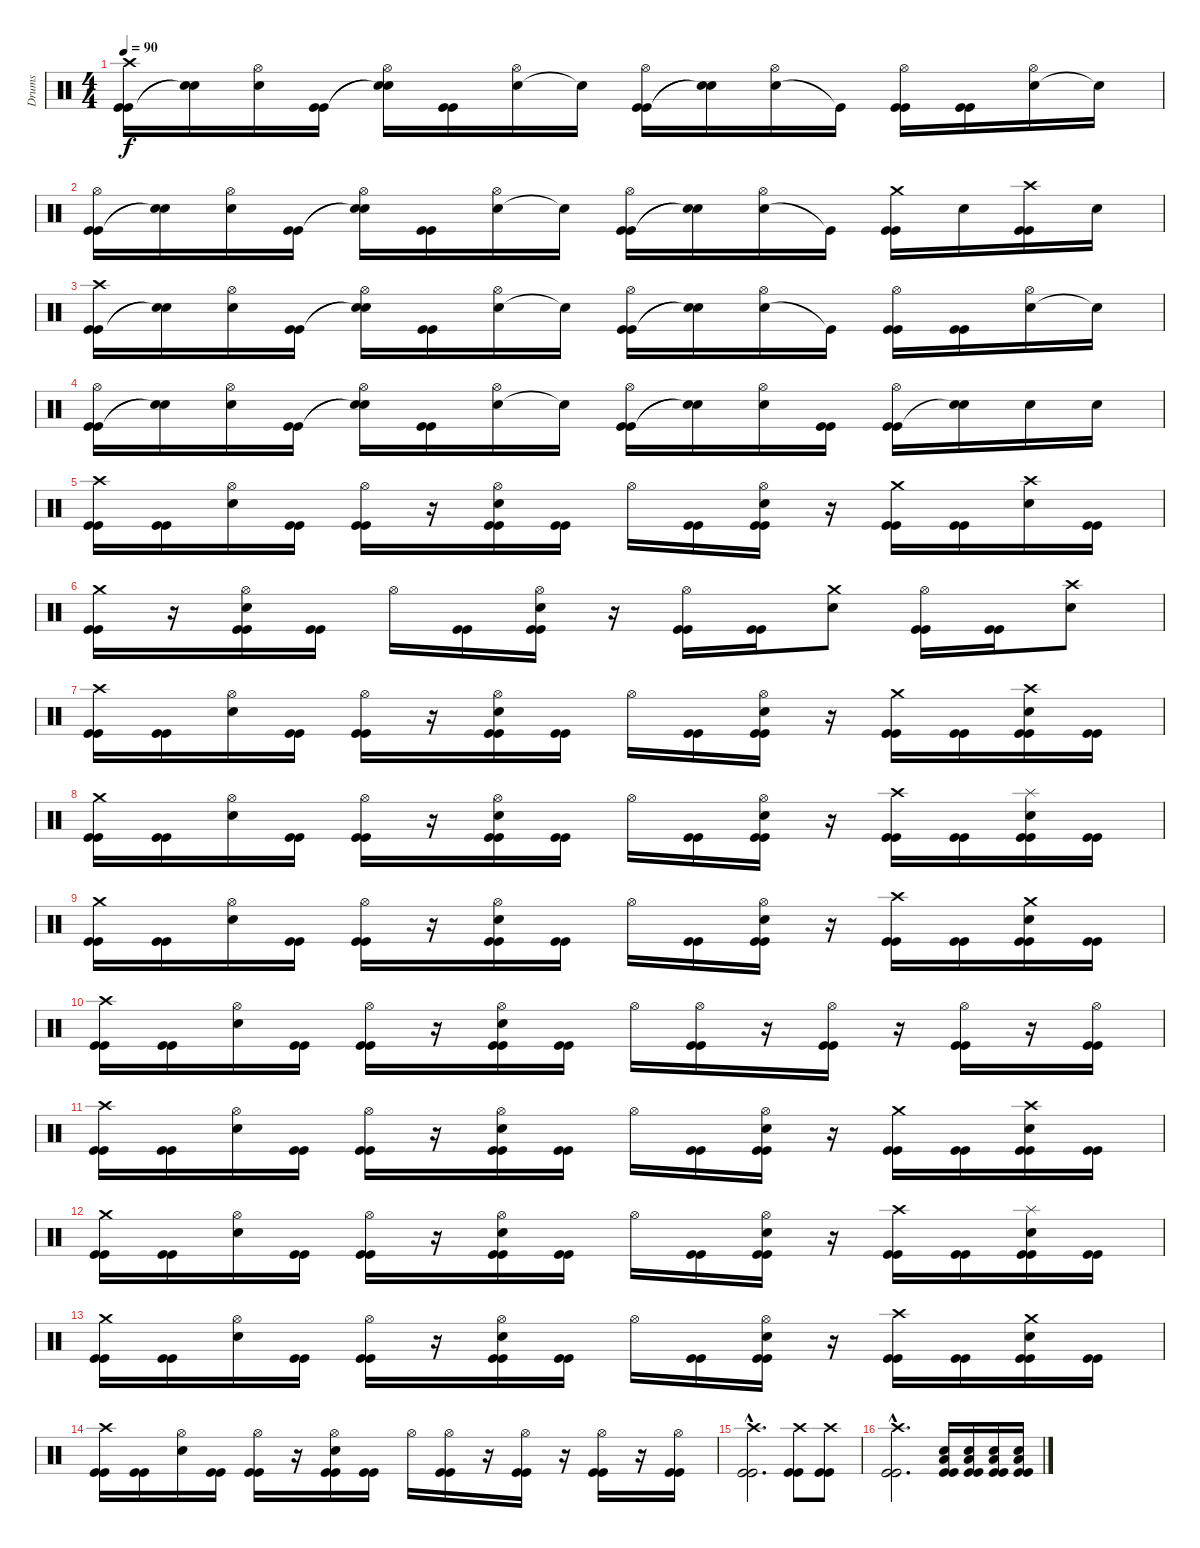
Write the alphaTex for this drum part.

\track ("Drums" "Drums") {instrument percussion}
\staff {score}
\articulation defaults
\ts (4 4)
\tempo 90
\clef neutral
\ks c
("Kick (hit)" "Kick (hit)" "Crash high (hit)").16{dy f} ("Snare (hit) 2"{t} "Snare (hit)"{t}).16 ("Snare (hit) 2" "Hi-Hat (open)").16 ("Kick (hit)" "Kick (hit)").16 ("Snare (hit)"{t} "Snare (hit) 2"{t} "Hi-Hat (open)").16 ("Kick (hit)" "Kick (hit)").16 ("Snare (hit) 2" "Hi-Hat (open)").16 "Snare (hit)"{t}.16 ("Kick (hit)" "Kick (hit)" "Hi-Hat (open)").16 ("Snare (hit) 2"{t} "Snare (hit)"{t}).16 ("Snare (hit) 2" "Hi-Hat (open)").16 "Kick (hit)"{t}.16 ("Kick (hit)" "Kick (hit)" "Hi-Hat (open)").16 ("Kick (hit)" "Kick (hit)").16 ("Snare (hit) 2" "Hi-Hat (open)").16 "Snare (hit)"{t}.16 |
("Kick (hit)" "Kick (hit)" "Hi-Hat (open)").16 ("Snare (hit) 2"{t} "Snare (hit)"{t}).16 ("Snare (hit) 2" "Hi-Hat (open)").16 ("Kick (hit)" "Kick (hit)").16 ("Snare (hit)"{t} "Snare (hit) 2"{t} "Hi-Hat (open)").16 ("Kick (hit)" "Kick (hit)").16 ("Snare (hit) 2" "Hi-Hat (open)").16 "Snare (hit)"{t}.16 ("Kick (hit)" "Kick (hit)" "Hi-Hat (open)").16 ("Snare (hit) 2"{t} "Snare (hit)"{t}).16 ("Snare (hit) 2" "Hi-Hat (open)").16 "Kick (hit)"{t}.16 ("Kick (hit)" "Kick (hit)" "Crash medium (hit)").16 "Snare (hit) 2".16 ("Kick (hit)" "Kick (hit)" "Crash high (hit)").16 "Snare (hit) 2".16 |
("Kick (hit)" "Kick (hit)" "Crash high (hit)").16 ("Snare (hit) 2"{t} "Snare (hit)"{t}).16 ("Snare (hit) 2" "Hi-Hat (open)").16 ("Kick (hit)" "Kick (hit)").16 ("Snare (hit)"{t} "Snare (hit) 2"{t} "Hi-Hat (open)").16 ("Kick (hit)" "Kick (hit)").16 ("Snare (hit) 2" "Hi-Hat (open)").16 "Snare (hit)"{t}.16 ("Kick (hit)" "Kick (hit)" "Hi-Hat (open)").16 ("Snare (hit) 2"{t} "Snare (hit)"{t}).16 ("Snare (hit) 2" "Hi-Hat (open)").16 "Kick (hit)"{t}.16 ("Kick (hit)" "Kick (hit)" "Hi-Hat (open)").16 ("Kick (hit)" "Kick (hit)").16 ("Snare (hit) 2" "Hi-Hat (open)").16 "Snare (hit)"{t}.16 |
("Kick (hit)" "Kick (hit)" "Hi-Hat (open)").16 ("Snare (hit) 2"{t} "Snare (hit)"{t}).16 ("Snare (hit) 2" "Hi-Hat (open)").16 ("Kick (hit)" "Kick (hit)").16 ("Snare (hit)"{t} "Snare (hit) 2"{t} "Hi-Hat (open)").16 ("Kick (hit)" "Kick (hit)").16 ("Snare (hit) 2" "Hi-Hat (open)").16 "Snare (hit)"{t}.16 ("Kick (hit)" "Kick (hit)" "Hi-Hat (open)").16 ("Snare (hit)"{t} "Snare (hit)"{t}).16 ("Snare (hit) 2" "Hi-Hat (open)").16 ("Kick (hit)" "Kick (hit)").16 ("Kick (hit)" "Kick (hit)" "Hi-Hat (open)").16 ("Snare (hit) 2"{t} "Snare (hit) 2").16 "Snare (hit) 2".16 "Snare (hit) 2".16 |
("Kick (hit)" "Kick (hit)" "Crash high (hit)").16 ("Kick (hit)" "Kick (hit)").16 ("Snare (hit) 2" "Hi-Hat (open)").16 ("Kick (hit)" "Kick (hit)").16 ("Kick (hit)" "Kick (hit)" "Hi-Hat (open)").16 r.16 ("Kick (hit)" "Kick (hit)" "Snare (hit) 2" "Hi-Hat (open)").16 ("Kick (hit)" "Kick (hit)").16 "Hi-Hat (open)".16 ("Kick (hit)" "Kick (hit)").16 ("Kick (hit)" "Kick (hit)" "Snare (hit) 2" "Hi-Hat (open)").16 r.16 ("Kick (hit)" "Kick (hit)" "Crash medium (hit)").16 ("Kick (hit)" "Kick (hit)").16 ("Snare (hit) 2" "Crash high (hit)").16 ("Kick (hit)" "Kick (hit)").16 |
("Kick (hit)" "Kick (hit)" "Crash medium (hit)").16 r.16 ("Kick (hit)" "Kick (hit)" "Snare (hit) 2" "Hi-Hat (open)").16 ("Kick (hit)" "Kick (hit)").16 "Hi-Hat (open)".16 ("Kick (hit)" "Kick (hit)").16 ("Kick (hit)" "Kick (hit)" "Snare (hit) 2" "Hi-Hat (open)").16 r.16 ("Kick (hit)" "Kick (hit)" "Hi-Hat (open)").16 ("Kick (hit)" "Kick (hit)").16 ("Crash medium (hit)" "Snare (hit) 2").8 ("Kick (hit)" "Kick (hit)" "Hi-Hat (open)").16 ("Kick (hit)" "Kick (hit)").16 ("Crash high (hit)" "Snare (hit) 2").8 |
("Kick (hit)" "Kick (hit)" "Crash high (hit)").16 ("Kick (hit)" "Kick (hit)").16 ("Snare (hit) 2" "Hi-Hat (open)").16 ("Kick (hit)" "Kick (hit)").16 ("Kick (hit)" "Kick (hit)" "Hi-Hat (open)").16 r.16 ("Kick (hit)" "Kick (hit)" "Snare (hit) 2" "Hi-Hat (open)").16 ("Kick (hit)" "Kick (hit)").16 "Hi-Hat (open)".16 ("Kick (hit)" "Kick (hit)").16 ("Kick (hit)" "Kick (hit)" "Snare (hit) 2" "Hi-Hat (open)").16 r.16 ("Kick (hit)" "Kick (hit)" "Crash medium (hit)").16 ("Kick (hit)" "Kick (hit)").16 ("Kick (hit)" "Kick (hit)" "Snare (hit) 2" "Crash high (hit)").16 ("Kick (hit)" "Kick (hit)").16 |
("Kick (hit)" "Kick (hit)" "Crash medium (hit)").16 ("Kick (hit)" "Kick (hit)").16 ("Snare (hit) 2" "Hi-Hat (open)").16 ("Kick (hit)" "Kick (hit)").16 ("Kick (hit)" "Kick (hit)" "Hi-Hat (open)").16 r.16 ("Kick (hit)" "Kick (hit)" "Snare (hit) 2" "Hi-Hat (open)").16 ("Kick (hit)" "Kick (hit)").16 "Hi-Hat (open)".16 ("Kick (hit)" "Kick (hit)").16 ("Kick (hit)" "Kick (hit)" "Snare (hit) 2" "Hi-Hat (open)").16 r.16 ("Kick (hit)" "Kick (hit)" "Crash high (hit)").16 ("Kick (hit)" "Kick (hit)").16 ("Kick (hit)" "Kick (hit)" "Snare (hit) 2" "Splash (hit)").16 ("Kick (hit)" "Kick (hit)").16 |
("Kick (hit)" "Kick (hit)" "Crash medium (hit)").16 ("Kick (hit)" "Kick (hit)").16 ("Snare (hit) 2" "Hi-Hat (open)").16 ("Kick (hit)" "Kick (hit)").16 ("Kick (hit)" "Kick (hit)" "Hi-Hat (open)").16 r.16 ("Kick (hit)" "Kick (hit)" "Snare (hit) 2" "Hi-Hat (open)").16 ("Kick (hit)" "Kick (hit)").16 "Hi-Hat (open)".16 ("Kick (hit)" "Kick (hit)").16 ("Kick (hit)" "Kick (hit)" "Snare (hit) 2" "Hi-Hat (open)").16 r.16 ("Kick (hit)" "Kick (hit)" "Crash high (hit)").16 ("Kick (hit)" "Kick (hit)").16 ("Kick (hit)" "Kick (hit)" "Snare (hit) 2" "Crash medium (hit)").16 ("Kick (hit)" "Kick (hit)").16 |
("Kick (hit)" "Kick (hit)" "Crash high (hit)").16 ("Kick (hit)" "Kick (hit)").16 ("Snare (hit) 2" "Hi-Hat (open)").16 ("Kick (hit)" "Kick (hit)").16 ("Kick (hit)" "Kick (hit)" "Hi-Hat (open)").16 r.16 ("Kick (hit)" "Kick (hit)" "Snare (hit) 2" "Hi-Hat (open)").16 ("Kick (hit)" "Kick (hit)").16 "Hi-Hat (open)".16 ("Kick (hit)" "Hi-Hat (open)" "Kick (hit)").16 r.16 ("Kick (hit)" "Hi-Hat (open)" "Kick (hit)").16 r.16 ("Kick (hit)" "Hi-Hat (open)" "Kick (hit)").16 r.16 ("Kick (hit)" "Hi-Hat (open)" "Kick (hit)").16 |
("Kick (hit)" "Kick (hit)" "Crash high (hit)").16 ("Kick (hit)" "Kick (hit)").16 ("Snare (hit) 2" "Hi-Hat (open)").16 ("Kick (hit)" "Kick (hit)").16 ("Kick (hit)" "Kick (hit)" "Hi-Hat (open)").16 r.16 ("Kick (hit)" "Kick (hit)" "Snare (hit) 2" "Hi-Hat (open)").16 ("Kick (hit)" "Kick (hit)").16 "Hi-Hat (open)".16 ("Kick (hit)" "Kick (hit)").16 ("Kick (hit)" "Kick (hit)" "Snare (hit) 2" "Hi-Hat (open)").16 r.16 ("Kick (hit)" "Kick (hit)" "Crash medium (hit)").16 ("Kick (hit)" "Kick (hit)").16 ("Kick (hit)" "Kick (hit)" "Snare (hit) 2" "Crash high (hit)").16 ("Kick (hit)" "Kick (hit)").16 |
("Kick (hit)" "Kick (hit)" "Crash medium (hit)").16 ("Kick (hit)" "Kick (hit)").16 ("Snare (hit) 2" "Hi-Hat (open)").16 ("Kick (hit)" "Kick (hit)").16 ("Kick (hit)" "Kick (hit)" "Hi-Hat (open)").16 r.16 ("Kick (hit)" "Kick (hit)" "Snare (hit) 2" "Hi-Hat (open)").16 ("Kick (hit)" "Kick (hit)").16 "Hi-Hat (open)".16 ("Kick (hit)" "Kick (hit)").16 ("Kick (hit)" "Kick (hit)" "Snare (hit) 2" "Hi-Hat (open)").16 r.16 ("Kick (hit)" "Kick (hit)" "Crash high (hit)").16 ("Kick (hit)" "Kick (hit)").16 ("Kick (hit)" "Kick (hit)" "Snare (hit) 2" "Splash (hit)").16 ("Kick (hit)" "Kick (hit)").16 |
("Kick (hit)" "Kick (hit)" "Crash medium (hit)").16 ("Kick (hit)" "Kick (hit)").16 ("Snare (hit) 2" "Hi-Hat (open)").16 ("Kick (hit)" "Kick (hit)").16 ("Kick (hit)" "Kick (hit)" "Hi-Hat (open)").16 r.16 ("Kick (hit)" "Kick (hit)" "Snare (hit) 2" "Hi-Hat (open)").16 ("Kick (hit)" "Kick (hit)").16 "Hi-Hat (open)".16 ("Kick (hit)" "Kick (hit)").16 ("Kick (hit)" "Kick (hit)" "Snare (hit) 2" "Hi-Hat (open)").16 r.16 ("Kick (hit)" "Kick (hit)" "Crash high (hit)").16 ("Kick (hit)" "Kick (hit)").16 ("Kick (hit)" "Kick (hit)" "Snare (hit) 2" "Crash medium (hit)").16 ("Kick (hit)" "Kick (hit)").16 |
("Kick (hit)" "Kick (hit)" "Crash high (hit)").16 ("Kick (hit)" "Kick (hit)").16 ("Snare (hit) 2" "Hi-Hat (open)").16 ("Kick (hit)" "Kick (hit)").16 ("Kick (hit)" "Kick (hit)" "Hi-Hat (open)").16 r.16 ("Kick (hit)" "Kick (hit)" "Snare (hit) 2" "Hi-Hat (open)").16 ("Kick (hit)" "Kick (hit)").16 "Hi-Hat (open)".16 ("Kick (hit)" "Hi-Hat (open)" "Kick (hit)").16 r.16 ("Kick (hit)" "Hi-Hat (open)" "Kick (hit)").16 r.16 ("Kick (hit)" "Hi-Hat (open)" "Kick (hit)").16 r.16 ("Kick (hit)" "Hi-Hat (open)" "Kick (hit)").16 |
("Kick (hit)"{hac} "Kick (hit)"{hac} "Crash high (hit)"{hac}).2{d} ("Kick (hit)" "Crash high (hit)" "Kick (hit)").8 ("Kick (hit)" "Crash high (hit)" "Kick (hit)").8 |
("Kick (hit)"{hac} "Kick (hit)"{hac} "Crash high (hit)"{hac}).2{d} ("Kick (hit)" "Kick (hit)" "Snare (hit) 2" "Low Floor Tom (hit)").16 ("Kick (hit)" "Kick (hit)" "Snare (hit) 2" "Low Floor Tom (hit)").16 ("Kick (hit)" "Kick (hit)" "Snare (hit) 2" "Low Floor Tom (hit)").16 ("Kick (hit)" "Kick (hit)" "Snare (hit) 2" "Low Floor Tom (hit)").16
